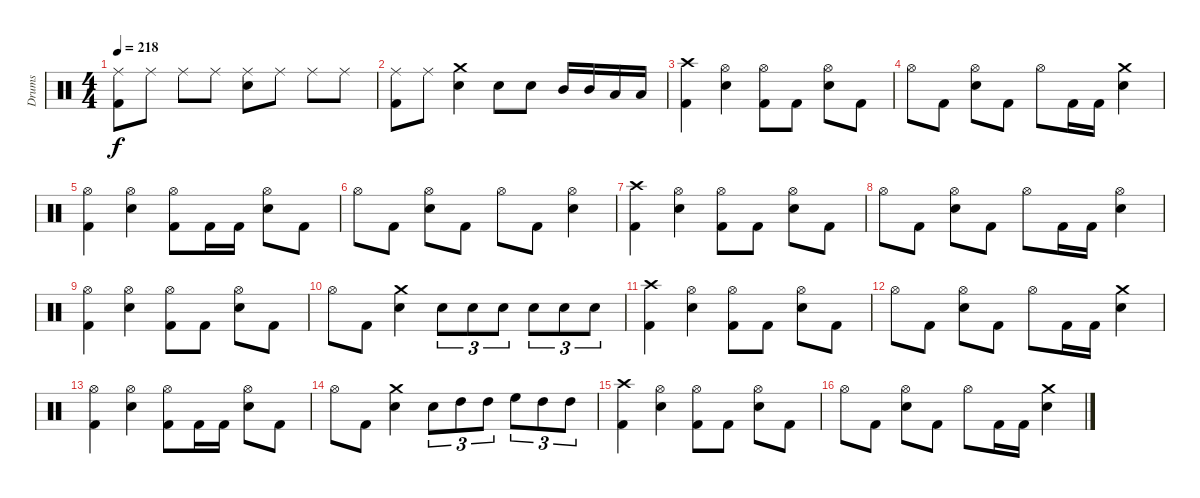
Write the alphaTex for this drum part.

\track ("Drums" "Drums") {instrument percussion}
\staff {score}
\articulation defaults
\ts (4 4)
\tempo 218
\clef neutral
\ks c
("Ride (middle)" "Kick (hit) 2").8{dy f} "Ride (middle)".8 "Ride (middle)".8 "Ride (middle)".8 ("Ride (middle)" "Snare (hit) 2").8 "Ride (middle)".8 "Ride (middle)".8 "Ride (middle)".8 |
("Ride (middle)" "Kick (hit) 2").8 "Ride (middle)".8 ("Crash medium (hit)" "Snare (hit) 2").4 "Snare (hit) 2".8 "Snare (hit) 2".8 "Mid Tom (hit)".16 "Mid Tom (hit)".16 "Low Tom (hit)".16 "Low Tom (hit)".16 |
("Crash high (hit)" "Kick (hit) 2").4 ("Hi-Hat (open)" "Snare (hit) 2").4 ("Hi-Hat (open)" "Kick (hit) 2").8 "Kick (hit) 2".8 ("Hi-Hat (open)" "Snare (hit) 2").8 "Kick (hit) 2".8 |
"Hi-Hat (open)".8 "Kick (hit) 2".8 ("Hi-Hat (open)" "Snare (hit) 2").8 "Kick (hit) 2".8 "Hi-Hat (open)".8 "Kick (hit) 2".16 "Kick (hit) 2".16 ("Crash medium (hit)" "Snare (hit) 2").4 |
("Hi-Hat (open)" "Kick (hit) 2").4 ("Hi-Hat (open)" "Snare (hit) 2").4 ("Hi-Hat (open)" "Kick (hit) 2").8 "Kick (hit) 2".16 "Kick (hit) 2".16 ("Hi-Hat (open)" "Snare (hit) 2").8 "Kick (hit) 2".8 |
"Hi-Hat (open)".8 "Kick (hit) 2".8 ("Hi-Hat (open)" "Snare (hit) 2").8 "Kick (hit) 2".8 "Hi-Hat (open)".8 "Kick (hit) 2".8 ("Hi-Hat (open)" "Snare (hit) 2").4 |
("Crash high (hit)" "Kick (hit) 2").4 ("Hi-Hat (open)" "Snare (hit) 2").4 ("Hi-Hat (open)" "Kick (hit) 2").8 "Kick (hit) 2".8 ("Hi-Hat (open)" "Snare (hit) 2").8 "Kick (hit) 2".8 |
"Hi-Hat (open)".8 "Kick (hit) 2".8 ("Hi-Hat (open)" "Snare (hit) 2").8 "Kick (hit) 2".8 "Hi-Hat (open)".8 "Kick (hit) 2".16 "Kick (hit) 2".16 ("Hi-Hat (open)" "Snare (hit) 2").4 |
("Hi-Hat (open)" "Kick (hit) 2").4 ("Hi-Hat (open)" "Snare (hit) 2").4 ("Hi-Hat (open)" "Kick (hit) 2").8 "Kick (hit) 2".8 ("Hi-Hat (open)" "Snare (hit) 2").8 "Kick (hit) 2".8 |
"Hi-Hat (open)".8 "Kick (hit) 2".8 ("Crash medium (hit)" "Snare (hit) 2").4 "Snare (hit) 2".8{tu (3 2)} "Snare (hit) 2".8{tu (3 2)} "Snare (hit) 2".8{tu (3 2)} "Snare (hit) 2".8{tu (3 2)} "Snare (hit) 2".8{tu (3 2)} "Snare (hit) 2".8{tu (3 2)} |
("Crash high (hit)" "Kick (hit) 2").4 ("Hi-Hat (open)" "Snare (hit) 2").4 ("Hi-Hat (open)" "Kick (hit) 2").8 "Kick (hit) 2".8 ("Hi-Hat (open)" "Snare (hit) 2").8 "Kick (hit) 2".8 |
"Hi-Hat (open)".8 "Kick (hit) 2".8 ("Hi-Hat (open)" "Snare (hit) 2").8 "Kick (hit) 2".8 "Hi-Hat (open)".8 "Kick (hit) 2".16 "Kick (hit) 2".16 ("Crash medium (hit)" "Snare (hit) 2").4 |
("Hi-Hat (open)" "Kick (hit) 2").4 ("Hi-Hat (open)" "Snare (hit) 2").4 ("Hi-Hat (open)" "Kick (hit) 2").8 "Kick (hit) 2".16 "Kick (hit) 2".16 ("Hi-Hat (open)" "Snare (hit) 2").8 "Kick (hit) 2".8 |
"Hi-Hat (open)".8 "Kick (hit) 2".8 ("Crash medium (hit)" "Snare (hit) 2").4 "Snare (hit) 2".8{tu (3 2)} "High Tom (hit)".8{tu (3 2)} "High Tom (hit)".8{tu (3 2)} "High Floor Tom (hit)".8{tu (3 2)} "High Tom (hit)".8{tu (3 2)} "High Tom (hit)".8{tu (3 2)} |
("Crash high (hit)" "Kick (hit) 2").4 ("Hi-Hat (open)" "Snare (hit) 2").4 ("Hi-Hat (open)" "Kick (hit) 2").8 "Kick (hit) 2".8 ("Hi-Hat (open)" "Snare (hit) 2").8 "Kick (hit) 2".8 |
"Hi-Hat (open)".8 "Kick (hit) 2".8 ("Hi-Hat (open)" "Snare (hit) 2").8 "Kick (hit) 2".8 "Hi-Hat (open)".8 "Kick (hit) 2".16 "Kick (hit) 2".16 ("Crash medium (hit)" "Snare (hit) 2").4
